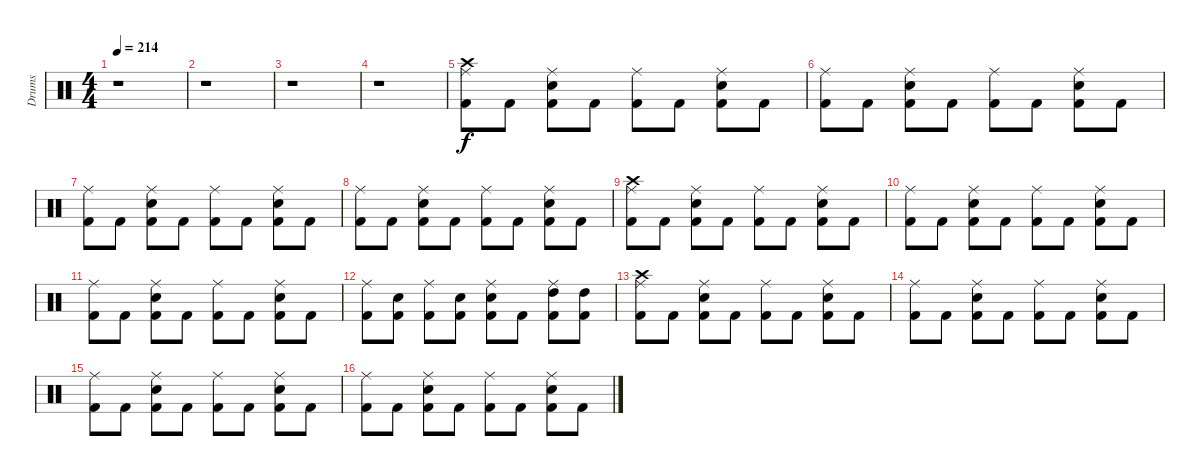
\track ("Drums" "Drums") {instrument percussion}
\staff {score}
\articulation defaults
\ts (4 4)
\tempo 214
\clef neutral
\ks c
r.1{dy f} |
r.1 |
r.1 |
r.1 |
("Ride (middle)" "Crash high (hit)" "Kick (hit) 2").8 "Kick (hit) 2".8 ("Ride (middle)" "Electric Snare (hit)" "Kick (hit) 2").8 "Kick (hit) 2".8 ("Ride (middle)" "Kick (hit) 2").8 "Kick (hit) 2".8 ("Ride (middle)" "Electric Snare (hit)" "Kick (hit) 2").8 "Kick (hit) 2".8 |
("Ride (middle)" "Kick (hit) 2").8 "Kick (hit) 2".8 ("Ride (middle)" "Electric Snare (hit)" "Kick (hit) 2").8 "Kick (hit) 2".8 ("Ride (middle)" "Kick (hit) 2").8 "Kick (hit) 2".8 ("Ride (middle)" "Electric Snare (hit)" "Kick (hit) 2").8 "Kick (hit) 2".8 |
("Ride (middle)" "Kick (hit) 2").8 "Kick (hit) 2".8 ("Ride (middle)" "Electric Snare (hit)" "Kick (hit) 2").8 "Kick (hit) 2".8 ("Ride (middle)" "Kick (hit) 2").8 "Kick (hit) 2".8 ("Ride (middle)" "Electric Snare (hit)" "Kick (hit) 2").8 "Kick (hit) 2".8 |
("Ride (middle)" "Kick (hit) 2").8 "Kick (hit) 2".8 ("Ride (middle)" "Electric Snare (hit)" "Kick (hit) 2").8 "Kick (hit) 2".8 ("Ride (middle)" "Kick (hit) 2").8 "Kick (hit) 2".8 ("Ride (middle)" "Electric Snare (hit)" "Kick (hit) 2").8 "Kick (hit) 2".8 |
("Ride (middle)" "Crash high (hit)" "Kick (hit) 2").8 "Kick (hit) 2".8 ("Ride (middle)" "Electric Snare (hit)" "Kick (hit) 2").8 "Kick (hit) 2".8 ("Ride (middle)" "Kick (hit) 2").8 "Kick (hit) 2".8 ("Ride (middle)" "Electric Snare (hit)" "Kick (hit) 2").8 "Kick (hit) 2".8 |
("Ride (middle)" "Kick (hit) 2").8 "Kick (hit) 2".8 ("Ride (middle)" "Electric Snare (hit)" "Kick (hit) 2").8 "Kick (hit) 2".8 ("Ride (middle)" "Kick (hit) 2").8 "Kick (hit) 2".8 ("Ride (middle)" "Electric Snare (hit)" "Kick (hit) 2").8 "Kick (hit) 2".8 |
("Ride (middle)" "Kick (hit) 2").8 "Kick (hit) 2".8 ("Ride (middle)" "Electric Snare (hit)" "Kick (hit) 2").8 "Kick (hit) 2".8 ("Ride (middle)" "Kick (hit) 2").8 "Kick (hit) 2".8 ("Ride (middle)" "Electric Snare (hit)" "Kick (hit) 2").8 "Kick (hit) 2".8 |
("Ride (middle)" "Kick (hit) 2").8 ("Electric Snare (hit)" "Kick (hit) 2").8 ("Ride (middle)" "Kick (hit) 2").8 ("Electric Snare (hit)" "Kick (hit) 2").8 ("Ride (middle)" "Electric Snare (hit)" "Kick (hit) 2").8 "Kick (hit) 2".8 ("Ride (middle)" "High Tom (hit)" "Kick (hit) 2").8 ("High Tom (hit)" "Kick (hit) 2").8 |
("Ride (middle)" "Crash high (hit)" "Kick (hit) 2").8 "Kick (hit) 2".8 ("Ride (middle)" "Electric Snare (hit)" "Kick (hit) 2").8 "Kick (hit) 2".8 ("Ride (middle)" "Kick (hit) 2").8 "Kick (hit) 2".8 ("Ride (middle)" "Electric Snare (hit)" "Kick (hit) 2").8 "Kick (hit) 2".8 |
("Ride (middle)" "Kick (hit) 2").8 "Kick (hit) 2".8 ("Ride (middle)" "Electric Snare (hit)" "Kick (hit) 2").8 "Kick (hit) 2".8 ("Ride (middle)" "Kick (hit) 2").8 "Kick (hit) 2".8 ("Ride (middle)" "Electric Snare (hit)" "Kick (hit) 2").8 "Kick (hit) 2".8 |
("Ride (middle)" "Kick (hit) 2").8 "Kick (hit) 2".8 ("Ride (middle)" "Electric Snare (hit)" "Kick (hit) 2").8 "Kick (hit) 2".8 ("Ride (middle)" "Kick (hit) 2").8 "Kick (hit) 2".8 ("Ride (middle)" "Electric Snare (hit)" "Kick (hit) 2").8 "Kick (hit) 2".8 |
("Ride (middle)" "Kick (hit) 2").8 "Kick (hit) 2".8 ("Ride (middle)" "Electric Snare (hit)" "Kick (hit) 2").8 "Kick (hit) 2".8 ("Ride (middle)" "Kick (hit) 2").8 "Kick (hit) 2".8 ("Ride (middle)" "Electric Snare (hit)" "Kick (hit) 2").8 "Kick (hit) 2".8
